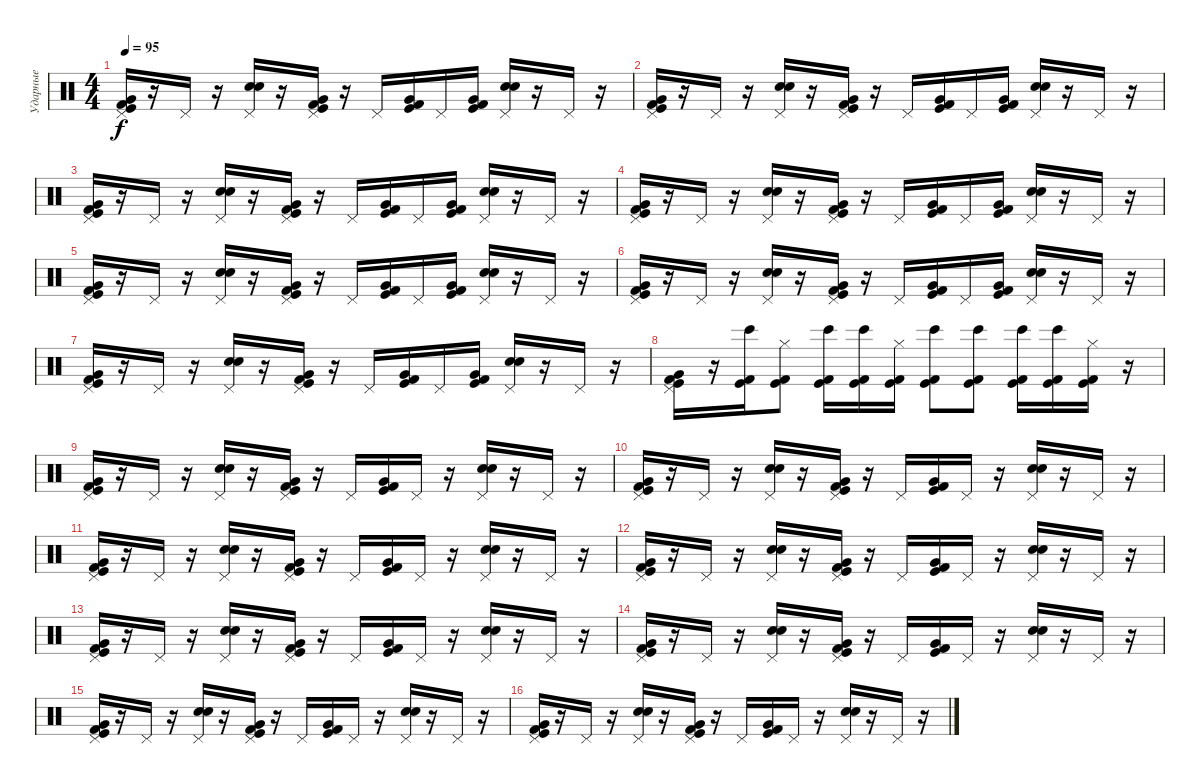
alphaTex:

\track ("Ударные" "Ударные") {instrument percussion}
\staff {score}
\articulation defaults
\ts (4 4)
\tempo 95
\clef neutral
\ks c
("Pedal Hi-Hat (hit)" "Very Low Tom (hit)" "Kick (hit)" "Kick (hit) 2").16{dy f} r.16 "Pedal Hi-Hat (hit)".16 r.16 ("Pedal Hi-Hat (hit)" "Electric Snare (hit)" "Snare (hit) 2").16 r.16 ("Pedal Hi-Hat (hit)" "Very Low Tom (hit)" "Kick (hit)" "Kick (hit) 2").16 r.16 "Pedal Hi-Hat (hit)".16 ("Very Low Tom (hit)" "Kick (hit)" "Kick (hit) 2").16 "Pedal Hi-Hat (hit)".16 ("Very Low Tom (hit)" "Kick (hit)" "Kick (hit) 2").16 ("Pedal Hi-Hat (hit)" "Electric Snare (hit)" "Snare (hit) 2").16 r.16 "Pedal Hi-Hat (hit)".16 r.16 |
("Pedal Hi-Hat (hit)" "Very Low Tom (hit)" "Kick (hit)" "Kick (hit) 2").16 r.16 "Pedal Hi-Hat (hit)".16 r.16 ("Pedal Hi-Hat (hit)" "Electric Snare (hit)" "Snare (hit) 2").16 r.16 ("Pedal Hi-Hat (hit)" "Very Low Tom (hit)" "Kick (hit)" "Kick (hit) 2").16 r.16 "Pedal Hi-Hat (hit)".16 ("Very Low Tom (hit)" "Kick (hit)" "Kick (hit) 2").16 "Pedal Hi-Hat (hit)".16 ("Very Low Tom (hit)" "Kick (hit)" "Kick (hit) 2").16 ("Pedal Hi-Hat (hit)" "Electric Snare (hit)" "Snare (hit) 2").16 r.16 "Pedal Hi-Hat (hit)".16 r.16 |
("Pedal Hi-Hat (hit)" "Very Low Tom (hit)" "Kick (hit)" "Kick (hit) 2").16 r.16 "Pedal Hi-Hat (hit)".16 r.16 ("Pedal Hi-Hat (hit)" "Electric Snare (hit)" "Snare (hit) 2").16 r.16 ("Pedal Hi-Hat (hit)" "Very Low Tom (hit)" "Kick (hit)" "Kick (hit) 2").16 r.16 "Pedal Hi-Hat (hit)".16 ("Very Low Tom (hit)" "Kick (hit)" "Kick (hit) 2").16 "Pedal Hi-Hat (hit)".16 ("Very Low Tom (hit)" "Kick (hit)" "Kick (hit) 2").16 ("Pedal Hi-Hat (hit)" "Electric Snare (hit)" "Snare (hit) 2").16 r.16 "Pedal Hi-Hat (hit)".16 r.16 |
("Pedal Hi-Hat (hit)" "Very Low Tom (hit)" "Kick (hit)" "Kick (hit) 2").16 r.16 "Pedal Hi-Hat (hit)".16 r.16 ("Pedal Hi-Hat (hit)" "Electric Snare (hit)" "Snare (hit) 2").16 r.16 ("Pedal Hi-Hat (hit)" "Very Low Tom (hit)" "Kick (hit)" "Kick (hit) 2").16 r.16 "Pedal Hi-Hat (hit)".16 ("Very Low Tom (hit)" "Kick (hit)" "Kick (hit) 2").16 "Pedal Hi-Hat (hit)".16 ("Very Low Tom (hit)" "Kick (hit)" "Kick (hit) 2").16 ("Pedal Hi-Hat (hit)" "Electric Snare (hit)" "Snare (hit) 2").16 r.16 "Pedal Hi-Hat (hit)".16 r.16 |
("Pedal Hi-Hat (hit)" "Very Low Tom (hit)" "Kick (hit)" "Kick (hit) 2").16 r.16 "Pedal Hi-Hat (hit)".16 r.16 ("Pedal Hi-Hat (hit)" "Electric Snare (hit)" "Snare (hit) 2").16 r.16 ("Pedal Hi-Hat (hit)" "Very Low Tom (hit)" "Kick (hit)" "Kick (hit) 2").16 r.16 "Pedal Hi-Hat (hit)".16 ("Very Low Tom (hit)" "Kick (hit)" "Kick (hit) 2").16 "Pedal Hi-Hat (hit)".16 ("Very Low Tom (hit)" "Kick (hit)" "Kick (hit) 2").16 ("Pedal Hi-Hat (hit)" "Electric Snare (hit)" "Snare (hit) 2").16 r.16 "Pedal Hi-Hat (hit)".16 r.16 |
("Pedal Hi-Hat (hit)" "Very Low Tom (hit)" "Kick (hit)" "Kick (hit) 2").16 r.16 "Pedal Hi-Hat (hit)".16 r.16 ("Pedal Hi-Hat (hit)" "Electric Snare (hit)" "Snare (hit) 2").16 r.16 ("Pedal Hi-Hat (hit)" "Very Low Tom (hit)" "Kick (hit)" "Kick (hit) 2").16 r.16 "Pedal Hi-Hat (hit)".16 ("Very Low Tom (hit)" "Kick (hit)" "Kick (hit) 2").16 "Pedal Hi-Hat (hit)".16 ("Very Low Tom (hit)" "Kick (hit)" "Kick (hit) 2").16 ("Pedal Hi-Hat (hit)" "Electric Snare (hit)" "Snare (hit) 2").16 r.16 "Pedal Hi-Hat (hit)".16 r.16 |
("Pedal Hi-Hat (hit)" "Very Low Tom (hit)" "Kick (hit)" "Kick (hit) 2").16 r.16 "Pedal Hi-Hat (hit)".16 r.16 ("Pedal Hi-Hat (hit)" "Electric Snare (hit)" "Snare (hit) 2").16 r.16 ("Pedal Hi-Hat (hit)" "Very Low Tom (hit)" "Kick (hit)" "Kick (hit) 2").16 r.16 "Pedal Hi-Hat (hit)".16 ("Very Low Tom (hit)" "Kick (hit)" "Kick (hit) 2").16 "Pedal Hi-Hat (hit)".16 ("Very Low Tom (hit)" "Kick (hit)" "Kick (hit) 2").16 ("Pedal Hi-Hat (hit)" "Electric Snare (hit)" "Snare (hit) 2").16 r.16 "Pedal Hi-Hat (hit)".16 r.16 |
("Pedal Hi-Hat (hit)" "Very Low Tom (hit)" "Kick (hit)" "Kick (hit) 2").16 r.16 ("Bongo High (hit)" "Kick (hit)" "Kick (hit) 2").16 ("Hi-Hat (closed)" "Kick (hit)" "Kick (hit) 2").8 ("Bongo High (hit)" "Kick (hit)" "Kick (hit) 2").16 ("Bongo High (hit)" "Kick (hit)" "Kick (hit) 2").16 ("Hi-Hat (closed)" "Kick (hit)" "Kick (hit) 2").16 ("Bongo High (hit)" "Kick (hit)" "Kick (hit) 2").8 ("Bongo High (hit)" "Kick (hit)" "Kick (hit) 2").8 ("Bongo High (hit)" "Kick (hit)" "Kick (hit) 2").16 ("Bongo High (hit)" "Kick (hit)" "Kick (hit) 2").16 ("Hi-Hat (closed)" "Kick (hit)" "Kick (hit) 2").16 r.16 |
("Pedal Hi-Hat (hit)" "Very Low Tom (hit)" "Kick (hit)" "Kick (hit) 2").16 r.16 "Pedal Hi-Hat (hit)".16 r.16 ("Pedal Hi-Hat (hit)" "Electric Snare (hit)" "Snare (hit) 2").16 r.16 ("Pedal Hi-Hat (hit)" "Very Low Tom (hit)" "Kick (hit)" "Kick (hit) 2").16 r.16 "Pedal Hi-Hat (hit)".16 ("Very Low Tom (hit)" "Kick (hit)" "Kick (hit) 2").16 "Pedal Hi-Hat (hit)".16 r.16 ("Pedal Hi-Hat (hit)" "Electric Snare (hit)" "Snare (hit) 2").16 r.16 "Pedal Hi-Hat (hit)".16 r.16 |
("Pedal Hi-Hat (hit)" "Very Low Tom (hit)" "Kick (hit)" "Kick (hit) 2").16 r.16 "Pedal Hi-Hat (hit)".16 r.16 ("Pedal Hi-Hat (hit)" "Electric Snare (hit)" "Snare (hit) 2").16 r.16 ("Pedal Hi-Hat (hit)" "Very Low Tom (hit)" "Kick (hit)" "Kick (hit) 2").16 r.16 "Pedal Hi-Hat (hit)".16 ("Very Low Tom (hit)" "Kick (hit)" "Kick (hit) 2").16 "Pedal Hi-Hat (hit)".16 r.16 ("Pedal Hi-Hat (hit)" "Electric Snare (hit)" "Snare (hit) 2").16 r.16 "Pedal Hi-Hat (hit)".16 r.16 |
("Pedal Hi-Hat (hit)" "Very Low Tom (hit)" "Kick (hit)" "Kick (hit) 2").16 r.16 "Pedal Hi-Hat (hit)".16 r.16 ("Pedal Hi-Hat (hit)" "Electric Snare (hit)" "Snare (hit) 2").16 r.16 ("Pedal Hi-Hat (hit)" "Very Low Tom (hit)" "Kick (hit)" "Kick (hit) 2").16 r.16 "Pedal Hi-Hat (hit)".16 ("Very Low Tom (hit)" "Kick (hit)" "Kick (hit) 2").16 "Pedal Hi-Hat (hit)".16 r.16 ("Pedal Hi-Hat (hit)" "Electric Snare (hit)" "Snare (hit) 2").16 r.16 "Pedal Hi-Hat (hit)".16 r.16 |
("Pedal Hi-Hat (hit)" "Very Low Tom (hit)" "Kick (hit)" "Kick (hit) 2").16 r.16 "Pedal Hi-Hat (hit)".16 r.16 ("Pedal Hi-Hat (hit)" "Electric Snare (hit)" "Snare (hit) 2").16 r.16 ("Pedal Hi-Hat (hit)" "Very Low Tom (hit)" "Kick (hit)" "Kick (hit) 2").16 r.16 "Pedal Hi-Hat (hit)".16 ("Very Low Tom (hit)" "Kick (hit)" "Kick (hit) 2").16 "Pedal Hi-Hat (hit)".16 r.16 ("Pedal Hi-Hat (hit)" "Electric Snare (hit)" "Snare (hit) 2").16 r.16 "Pedal Hi-Hat (hit)".16 r.16 |
("Pedal Hi-Hat (hit)" "Very Low Tom (hit)" "Kick (hit)" "Kick (hit) 2").16 r.16 "Pedal Hi-Hat (hit)".16 r.16 ("Pedal Hi-Hat (hit)" "Electric Snare (hit)" "Snare (hit) 2").16 r.16 ("Pedal Hi-Hat (hit)" "Very Low Tom (hit)" "Kick (hit)" "Kick (hit) 2").16 r.16 "Pedal Hi-Hat (hit)".16 ("Very Low Tom (hit)" "Kick (hit)" "Kick (hit) 2").16 "Pedal Hi-Hat (hit)".16 r.16 ("Pedal Hi-Hat (hit)" "Electric Snare (hit)" "Snare (hit) 2").16 r.16 "Pedal Hi-Hat (hit)".16 r.16 |
("Pedal Hi-Hat (hit)" "Very Low Tom (hit)" "Kick (hit)" "Kick (hit) 2").16 r.16 "Pedal Hi-Hat (hit)".16 r.16 ("Pedal Hi-Hat (hit)" "Electric Snare (hit)" "Snare (hit) 2").16 r.16 ("Pedal Hi-Hat (hit)" "Very Low Tom (hit)" "Kick (hit)" "Kick (hit) 2").16 r.16 "Pedal Hi-Hat (hit)".16 ("Very Low Tom (hit)" "Kick (hit)" "Kick (hit) 2").16 "Pedal Hi-Hat (hit)".16 r.16 ("Pedal Hi-Hat (hit)" "Electric Snare (hit)" "Snare (hit) 2").16 r.16 "Pedal Hi-Hat (hit)".16 r.16 |
("Pedal Hi-Hat (hit)" "Very Low Tom (hit)" "Kick (hit)" "Kick (hit) 2").16 r.16 "Pedal Hi-Hat (hit)".16 r.16 ("Pedal Hi-Hat (hit)" "Electric Snare (hit)" "Snare (hit) 2").16 r.16 ("Pedal Hi-Hat (hit)" "Very Low Tom (hit)" "Kick (hit)" "Kick (hit) 2").16 r.16 "Pedal Hi-Hat (hit)".16 ("Very Low Tom (hit)" "Kick (hit)" "Kick (hit) 2").16 "Pedal Hi-Hat (hit)".16 r.16 ("Pedal Hi-Hat (hit)" "Electric Snare (hit)" "Snare (hit) 2").16 r.16 "Pedal Hi-Hat (hit)".16 r.16 |
("Pedal Hi-Hat (hit)" "Very Low Tom (hit)" "Kick (hit)" "Kick (hit) 2").16 r.16 "Pedal Hi-Hat (hit)".16 r.16 ("Pedal Hi-Hat (hit)" "Electric Snare (hit)" "Snare (hit) 2").16 r.16 ("Pedal Hi-Hat (hit)" "Very Low Tom (hit)" "Kick (hit)" "Kick (hit) 2").16 r.16 "Pedal Hi-Hat (hit)".16 ("Very Low Tom (hit)" "Kick (hit)" "Kick (hit) 2").16 "Pedal Hi-Hat (hit)".16 r.16 ("Pedal Hi-Hat (hit)" "Electric Snare (hit)" "Snare (hit) 2").16 r.16 "Pedal Hi-Hat (hit)".16 r.16
